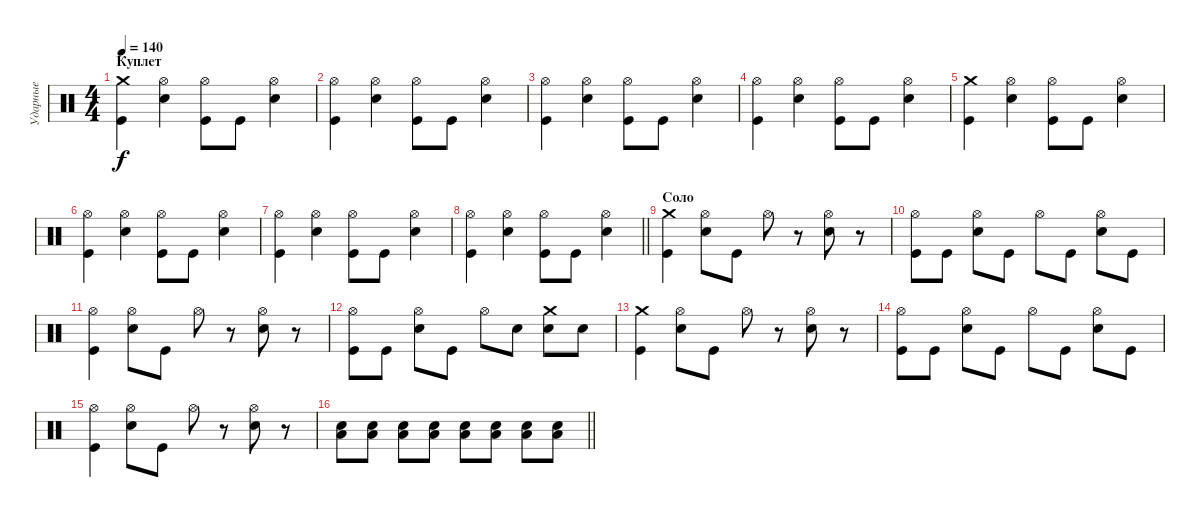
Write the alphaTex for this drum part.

\track ("Ударные" "Ударные") {instrument percussion}
\staff {score}
\articulation defaults
\ts (4 4)
\section ("" "Куплет")
\tempo 140
\clef neutral
\ks c
("Kick (hit)" "Crash medium (hit)").4{dy f} ("Electric Snare (hit)" "Hi-Hat (open)").4 ("Kick (hit)" "Hi-Hat (open)").8 "Kick (hit)".8 ("Electric Snare (hit)" "Hi-Hat (open)").4 |
("Kick (hit)" "Hi-Hat (open)").4 ("Electric Snare (hit)" "Hi-Hat (open)").4 ("Kick (hit)" "Hi-Hat (open)").8 "Kick (hit)".8 ("Electric Snare (hit)" "Hi-Hat (open)").4 |
("Kick (hit)" "Hi-Hat (open)").4 ("Electric Snare (hit)" "Hi-Hat (open)").4 ("Kick (hit)" "Hi-Hat (open)").8 "Kick (hit)".8 ("Electric Snare (hit)" "Hi-Hat (open)").4 |
("Kick (hit)" "Hi-Hat (open)").4 ("Electric Snare (hit)" "Hi-Hat (open)").4 ("Kick (hit)" "Hi-Hat (open)").8 "Kick (hit)".8 ("Electric Snare (hit)" "Hi-Hat (open)").4 |
("Kick (hit)" "Crash medium (hit)").4 ("Electric Snare (hit)" "Hi-Hat (open)").4 ("Kick (hit)" "Hi-Hat (open)").8 "Kick (hit)".8 ("Electric Snare (hit)" "Hi-Hat (open)").4 |
("Kick (hit)" "Hi-Hat (open)").4 ("Electric Snare (hit)" "Hi-Hat (open)").4 ("Kick (hit)" "Hi-Hat (open)").8 "Kick (hit)".8 ("Electric Snare (hit)" "Hi-Hat (open)").4 |
("Kick (hit)" "Hi-Hat (open)").4 ("Electric Snare (hit)" "Hi-Hat (open)").4 ("Kick (hit)" "Hi-Hat (open)").8 "Kick (hit)".8 ("Electric Snare (hit)" "Hi-Hat (open)").4 |
\barLineRight lightlight
("Kick (hit)" "Hi-Hat (open)").4 ("Electric Snare (hit)" "Hi-Hat (open)").4 ("Kick (hit)" "Hi-Hat (open)").8 "Kick (hit)".8 ("Electric Snare (hit)" "Hi-Hat (open)").4 |
\section ("" "Соло")
("Kick (hit)" "Crash medium (hit)").4 ("Electric Snare (hit)" "Hi-Hat (open)").8 "Kick (hit)".8 "Hi-Hat (open)".8 r.8 ("Electric Snare (hit)" "Hi-Hat (open)").8 r.8 |
("Kick (hit)" "Hi-Hat (open)").8 "Kick (hit)".8 ("Hi-Hat (open)" "Electric Snare (hit)").8 "Kick (hit)".8 "Hi-Hat (open)".8 "Kick (hit)".8 ("Electric Snare (hit)" "Hi-Hat (open)").8 "Kick (hit)".8 |
("Kick (hit)" "Hi-Hat (open)").4 ("Electric Snare (hit)" "Hi-Hat (open)").8 "Kick (hit)".8 "Hi-Hat (open)".8 r.8 ("Electric Snare (hit)" "Hi-Hat (open)").8 r.8 |
("Kick (hit)" "Hi-Hat (open)").8 "Kick (hit)".8 ("Hi-Hat (open)" "Electric Snare (hit)").8 "Kick (hit)".8 "Hi-Hat (open)".8 "Electric Snare (hit)".8 ("Electric Snare (hit)" "Crash medium (hit)").8 "Electric Snare (hit)".8 |
("Kick (hit)" "Crash medium (hit)").4 ("Electric Snare (hit)" "Hi-Hat (open)").8 "Kick (hit)".8 "Hi-Hat (open)".8 r.8 ("Electric Snare (hit)" "Hi-Hat (open)").8 r.8 |
("Kick (hit)" "Hi-Hat (open)").8 "Kick (hit)".8 ("Hi-Hat (open)" "Electric Snare (hit)").8 "Kick (hit)".8 "Hi-Hat (open)".8 "Kick (hit)".8 ("Electric Snare (hit)" "Hi-Hat (open)").8 "Kick (hit)".8 |
("Kick (hit)" "Hi-Hat (open)").4 ("Electric Snare (hit)" "Hi-Hat (open)").8 "Kick (hit)".8 "Hi-Hat (open)".8 r.8 ("Electric Snare (hit)" "Hi-Hat (open)").8 r.8 |
\barLineRight lightlight
("Low Floor Tom (hit)" "Electric Snare (hit)").8 ("Low Floor Tom (hit)" "Electric Snare (hit)").8 ("Low Floor Tom (hit)" "Electric Snare (hit)").8 ("Low Floor Tom (hit)" "Electric Snare (hit)").8 ("Low Floor Tom (hit)" "Electric Snare (hit)").8 ("Low Floor Tom (hit)" "Electric Snare (hit)").8 ("Low Floor Tom (hit)" "Electric Snare (hit)").8 ("Low Floor Tom (hit)" "Electric Snare (hit)").8
